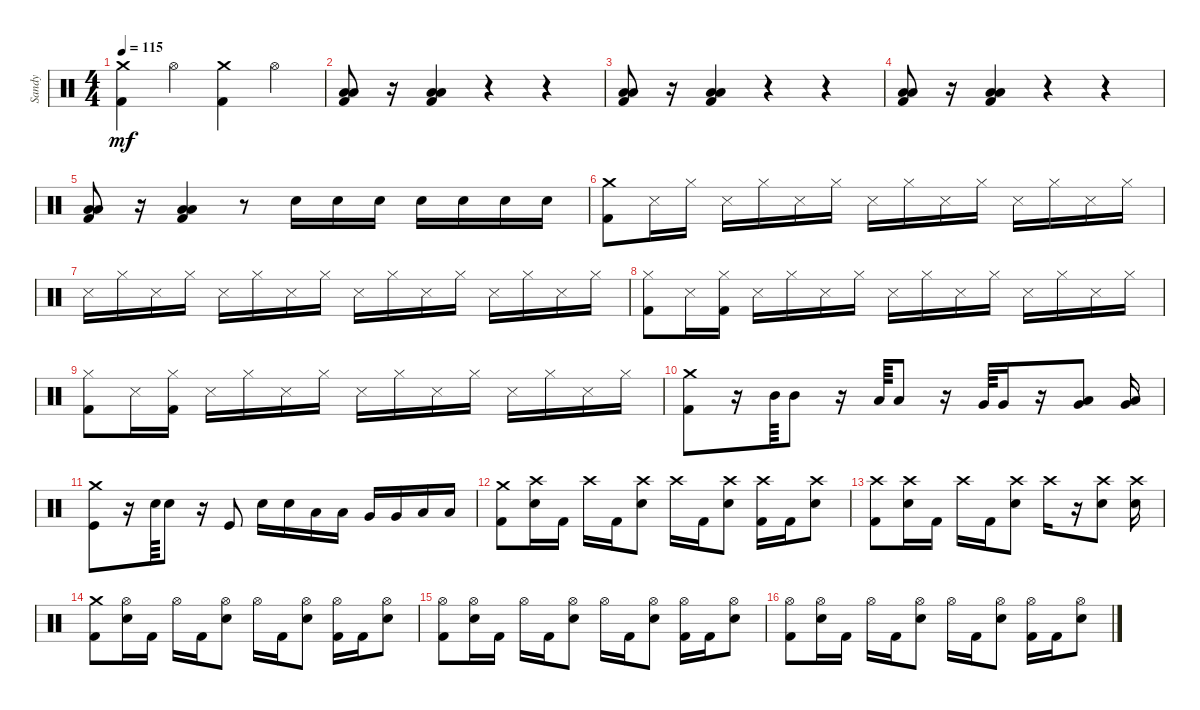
\track ("Sandy" "Sandy") {instrument percussion}
\staff {score}
\articulation defaults
\ts (4 4)
\tempo 115
\clef neutral
\ks c
("Crash medium (hit)" "Kick (hit) 2").4{dy mf} "Hi-Hat (open)".4 ("Crash medium (hit)" "Kick (hit) 2").4 "Hi-Hat (open)".4 |
("Low Tom (hit)" "Low Floor Tom (hit)" "Kick (hit) 2").8 r.16 ("Low Tom (hit)" "Low Floor Tom (hit)" "Kick (hit) 2").4 r.4 r.4 |
("Low Tom (hit)" "Low Floor Tom (hit)" "Kick (hit) 2").8 r.16 ("Low Tom (hit)" "Low Floor Tom (hit)" "Kick (hit) 2").4 r.4 r.4 |
("Low Tom (hit)" "Low Floor Tom (hit)" "Kick (hit) 2").8 r.16 ("Low Tom (hit)" "Low Floor Tom (hit)" "Kick (hit) 2").4 r.4 r.4 |
("Low Tom (hit)" "Low Floor Tom (hit)" "Kick (hit) 2").8 r.16 ("Low Tom (hit)" "Low Floor Tom (hit)" "Kick (hit) 2").4 r.8 "Snare (hit) 2".16 "Snare (hit) 2".16 "Snare (hit) 2".16 "Snare (hit) 2".16 "Snare (hit) 2".16 "Snare (hit) 2".16 "Snare (hit) 2".16 |
("Crash medium (hit)" "Kick (hit) 2").8 "Snare (side stick) 3".16 "Hi-Hat (closed)".16 "Snare (side stick) 3".16 "Hi-Hat (closed)".16 "Snare (side stick) 3".16 "Hi-Hat (closed)".16 "Snare (side stick) 3".16 "Hi-Hat (closed)".16 "Snare (side stick) 3".16 "Hi-Hat (closed)".16 "Snare (side stick) 3".16 "Hi-Hat (closed)".16 "Snare (side stick) 3".16 "Hi-Hat (closed)".16 |
"Snare (side stick) 3".16 "Hi-Hat (closed)".16 "Snare (side stick) 3".16 "Hi-Hat (closed)".16 "Snare (side stick) 3".16 "Hi-Hat (closed)".16 "Snare (side stick) 3".16 "Hi-Hat (closed)".16 "Snare (side stick) 3".16 "Hi-Hat (closed)".16 "Snare (side stick) 3".16 "Hi-Hat (closed)".16 "Snare (side stick) 3".16 "Hi-Hat (closed)".16 "Snare (side stick) 3".16 "Hi-Hat (closed)".16 |
("Hi-Hat (closed)" "Kick (hit) 2").8 "Snare (side stick) 3".16 ("Hi-Hat (closed)" "Kick (hit) 2").16 "Snare (side stick) 3".16 "Hi-Hat (closed)".16 "Snare (side stick) 3".16 "Hi-Hat (closed)".16 "Snare (side stick) 3".16 "Hi-Hat (closed)".16 "Snare (side stick) 3".16 "Hi-Hat (closed)".16 "Snare (side stick) 3".16 "Hi-Hat (closed)".16 "Snare (side stick) 3".16 "Hi-Hat (closed)".16 |
("Hi-Hat (closed)" "Kick (hit) 2").8 "Snare (side stick) 3".16 ("Hi-Hat (closed)" "Kick (hit) 2").16 "Snare (side stick) 3".16 "Hi-Hat (closed)".16 "Snare (side stick) 3".16 "Hi-Hat (closed)".16 "Snare (side stick) 3".16 "Hi-Hat (closed)".16 "Snare (side stick) 3".16 "Hi-Hat (closed)".16 "Snare (side stick) 3".16 "Hi-Hat (closed)".16 "Snare (side stick) 3".16 "Hi-Hat (closed)".16 |
("Crash medium (hit)" "Kick (hit) 2").8 r.16 "Mid Tom (hit)".64 "Mid Tom (hit)".8 r.16 "Low Tom (hit)".64 "Low Tom (hit)".8 r.16 "Very Low Tom (hit)".64 "Very Low Tom (hit)".16 r.16 ("Very Low Tom (hit)" "Low Floor Tom (hit)").8 ("Very Low Tom (hit)" "Low Floor Tom (hit)").16 |
("Crash medium (hit)" "Kick (hit)").8 r.16 "Electric Snare (hit)".64 "Electric Snare (hit)".8 r.16 "Kick (hit)".8 "Electric Snare (hit)".16 "Electric Snare (hit)".16 "Low Tom (hit)".16 "Low Tom (hit)".16 "Very Low Tom (hit)".16 "Very Low Tom (hit)".16 "Low Floor Tom (hit)".16 "Low Floor Tom (hit)".16 |
("Crash medium (hit)" "Kick (hit) 2").8 ("Crash high (hit)" "Snare (hit) 2").16 "Kick (hit) 2".16 "Crash high (hit)".16 "Kick (hit) 2".16 ("Crash high (hit)" "Snare (hit) 2").8 "Crash high (hit)".16 "Kick (hit) 2".16 ("Crash high (hit)" "Snare (hit) 2").8 ("Crash high (hit)" "Kick (hit) 2").16 "Kick (hit) 2".16 ("Crash high (hit)" "Snare (hit) 2").8 |
("Crash high (hit)" "Kick (hit) 2").8 ("Crash high (hit)" "Snare (hit) 2").16 "Kick (hit) 2".16 "Crash high (hit)".16 "Kick (hit) 2".16 ("Crash high (hit)" "Snare (hit) 2").8 "Crash high (hit)".16 r.16 ("Crash high (hit)" "Snare (hit) 2").8 ("Crash high (hit)" "Snare (hit) 2").16 |
("Crash medium (hit)" "Kick (hit) 2").8 ("Hi-Hat (open)" "Snare (hit) 2").16 "Kick (hit) 2".16 "Hi-Hat (open)".16 "Kick (hit) 2".16 ("Hi-Hat (open)" "Snare (hit) 2").8 "Hi-Hat (open)".16 "Kick (hit) 2".16 ("Hi-Hat (open)" "Snare (hit) 2").8 ("Hi-Hat (open)" "Kick (hit) 2").16 "Kick (hit) 2".16 ("Hi-Hat (open)" "Snare (hit) 2").8 |
("Hi-Hat (open)" "Kick (hit) 2").8 ("Hi-Hat (open)" "Snare (hit) 2").16 "Kick (hit) 2".16 "Hi-Hat (open)".16 "Kick (hit) 2".16 ("Hi-Hat (open)" "Snare (hit) 2").8 "Hi-Hat (open)".16 "Kick (hit) 2".16 ("Hi-Hat (open)" "Snare (hit) 2").8 ("Hi-Hat (open)" "Kick (hit) 2").16 "Kick (hit) 2".16 ("Hi-Hat (open)" "Snare (hit) 2").8 |
("Hi-Hat (open)" "Kick (hit) 2").8 ("Hi-Hat (open)" "Snare (hit) 2").16 "Kick (hit) 2".16 "Hi-Hat (open)".16 "Kick (hit) 2".16 ("Hi-Hat (open)" "Snare (hit) 2").8 "Hi-Hat (open)".16 "Kick (hit) 2".16 ("Hi-Hat (open)" "Snare (hit) 2").8 ("Hi-Hat (open)" "Kick (hit) 2").16 "Kick (hit) 2".16 ("Hi-Hat (open)" "Snare (hit) 2").8
